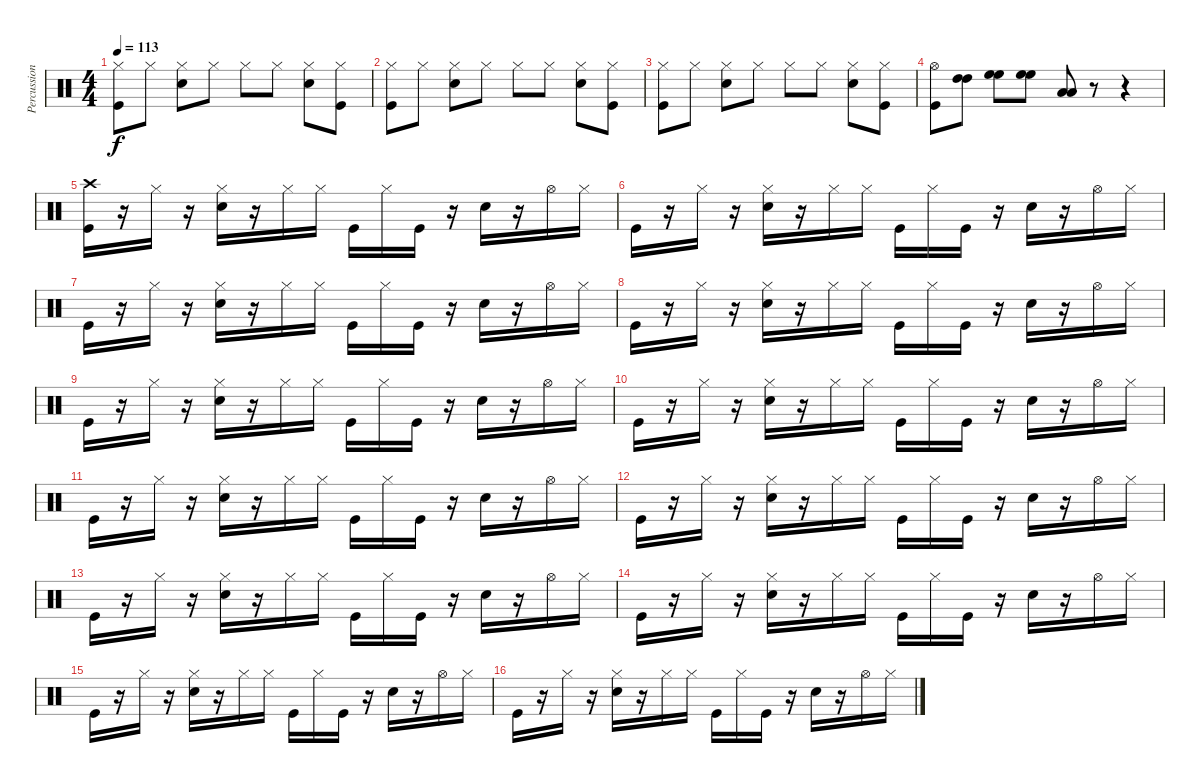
\track ("Percussioni" "Percussion") {instrument percussion}
\staff {score}
\articulation defaults
\ts (4 4)
\tempo 113
\clef neutral
\ks c
("Hi-Hat (closed)" "Kick (hit)").8{dy f} "Hi-Hat (closed)".8 ("Hi-Hat (closed)" "Electric Snare (hit)").8 "Hi-Hat (closed)".8 "Hi-Hat (closed)".8 "Hi-Hat (closed)".8 ("Hi-Hat (closed)" "Electric Snare (hit)").8 ("Hi-Hat (closed)" "Kick (hit)").8 |
("Hi-Hat (closed)" "Kick (hit)").8 "Hi-Hat (closed)".8 ("Hi-Hat (closed)" "Electric Snare (hit)").8 "Hi-Hat (closed)".8 "Hi-Hat (closed)".8 "Hi-Hat (closed)".8 ("Hi-Hat (closed)" "Electric Snare (hit)").8 ("Hi-Hat (closed)" "Kick (hit)").8 |
("Hi-Hat (closed)" "Kick (hit)").8 "Hi-Hat (closed)".8 ("Hi-Hat (closed)" "Electric Snare (hit)").8 "Hi-Hat (closed)".8 "Hi-Hat (closed)".8 "Hi-Hat (closed)".8 ("Hi-Hat (closed)" "Electric Snare (hit)").8 ("Hi-Hat (closed)" "Kick (hit)").8 |
("Hi-Hat (open)" "Kick (hit)").8 ("High Tom (hit)" "High Tom (hit)").8 ("High Floor Tom (hit)" "High Floor Tom (hit)").8 ("High Floor Tom (hit)" "High Floor Tom (hit)").8 ("Low Tom (hit)" "Low Tom (hit)").8 r.8 r.4 |
("Crash high (hit)" "Kick (hit)").16 r.16 "Hi-Hat (closed)".16 r.16 ("Hi-Hat (closed)" "Electric Snare (hit)").16 r.16 "Hi-Hat (closed)".16 "Hi-Hat (closed)".16 "Kick (hit)".16 "Hi-Hat (closed)".16 "Kick (hit)".16 r.16 "Electric Snare (hit)".16 r.16 "Hi-Hat (open)".16 "Hi-Hat (closed)".16 |
"Kick (hit)".16 r.16 "Hi-Hat (closed)".16 r.16 ("Hi-Hat (closed)" "Electric Snare (hit)").16 r.16 "Hi-Hat (closed)".16 "Hi-Hat (closed)".16 "Kick (hit)".16 "Hi-Hat (closed)".16 "Kick (hit)".16 r.16 "Electric Snare (hit)".16 r.16 "Hi-Hat (open)".16 "Hi-Hat (closed)".16 |
"Kick (hit)".16 r.16 "Hi-Hat (closed)".16 r.16 ("Hi-Hat (closed)" "Electric Snare (hit)").16 r.16 "Hi-Hat (closed)".16 "Hi-Hat (closed)".16 "Kick (hit)".16 "Hi-Hat (closed)".16 "Kick (hit)".16 r.16 "Electric Snare (hit)".16 r.16 "Hi-Hat (open)".16 "Hi-Hat (closed)".16 |
"Kick (hit)".16 r.16 "Hi-Hat (closed)".16 r.16 ("Hi-Hat (closed)" "Electric Snare (hit)").16 r.16 "Hi-Hat (closed)".16 "Hi-Hat (closed)".16 "Kick (hit)".16 "Hi-Hat (closed)".16 "Kick (hit)".16 r.16 "Electric Snare (hit)".16 r.16 "Hi-Hat (open)".16 "Hi-Hat (closed)".16 |
"Kick (hit)".16 r.16 "Hi-Hat (closed)".16 r.16 ("Hi-Hat (closed)" "Electric Snare (hit)").16 r.16 "Hi-Hat (closed)".16 "Hi-Hat (closed)".16 "Kick (hit)".16 "Hi-Hat (closed)".16 "Kick (hit)".16 r.16 "Electric Snare (hit)".16 r.16 "Hi-Hat (open)".16 "Hi-Hat (closed)".16 |
"Kick (hit)".16 r.16 "Hi-Hat (closed)".16 r.16 ("Hi-Hat (closed)" "Electric Snare (hit)").16 r.16 "Hi-Hat (closed)".16 "Hi-Hat (closed)".16 "Kick (hit)".16 "Hi-Hat (closed)".16 "Kick (hit)".16 r.16 "Electric Snare (hit)".16 r.16 "Hi-Hat (open)".16 "Hi-Hat (closed)".16 |
"Kick (hit)".16 r.16 "Hi-Hat (closed)".16 r.16 ("Hi-Hat (closed)" "Electric Snare (hit)").16 r.16 "Hi-Hat (closed)".16 "Hi-Hat (closed)".16 "Kick (hit)".16 "Hi-Hat (closed)".16 "Kick (hit)".16 r.16 "Electric Snare (hit)".16 r.16 "Hi-Hat (open)".16 "Hi-Hat (closed)".16 |
"Kick (hit)".16 r.16 "Hi-Hat (closed)".16 r.16 ("Hi-Hat (closed)" "Electric Snare (hit)").16 r.16 "Hi-Hat (closed)".16 "Hi-Hat (closed)".16 "Kick (hit)".16 "Hi-Hat (closed)".16 "Kick (hit)".16 r.16 "Electric Snare (hit)".16 r.16 "Hi-Hat (open)".16 "Hi-Hat (closed)".16 |
"Kick (hit)".16 r.16 "Hi-Hat (closed)".16 r.16 ("Hi-Hat (closed)" "Electric Snare (hit)").16 r.16 "Hi-Hat (closed)".16 "Hi-Hat (closed)".16 "Kick (hit)".16 "Hi-Hat (closed)".16 "Kick (hit)".16 r.16 "Electric Snare (hit)".16 r.16 "Hi-Hat (open)".16 "Hi-Hat (closed)".16 |
"Kick (hit)".16 r.16 "Hi-Hat (closed)".16 r.16 ("Hi-Hat (closed)" "Electric Snare (hit)").16 r.16 "Hi-Hat (closed)".16 "Hi-Hat (closed)".16 "Kick (hit)".16 "Hi-Hat (closed)".16 "Kick (hit)".16 r.16 "Electric Snare (hit)".16 r.16 "Hi-Hat (open)".16 "Hi-Hat (closed)".16 |
"Kick (hit)".16 r.16 "Hi-Hat (closed)".16 r.16 ("Hi-Hat (closed)" "Electric Snare (hit)").16 r.16 "Hi-Hat (closed)".16 "Hi-Hat (closed)".16 "Kick (hit)".16 "Hi-Hat (closed)".16 "Kick (hit)".16 r.16 "Electric Snare (hit)".16 r.16 "Hi-Hat (open)".16 "Hi-Hat (closed)".16 |
"Kick (hit)".16 r.16 "Hi-Hat (closed)".16 r.16 ("Hi-Hat (closed)" "Electric Snare (hit)").16 r.16 "Hi-Hat (closed)".16 "Hi-Hat (closed)".16 "Kick (hit)".16 "Hi-Hat (closed)".16 "Kick (hit)".16 r.16 "Electric Snare (hit)".16 r.16 "Hi-Hat (open)".16 "Hi-Hat (closed)".16
